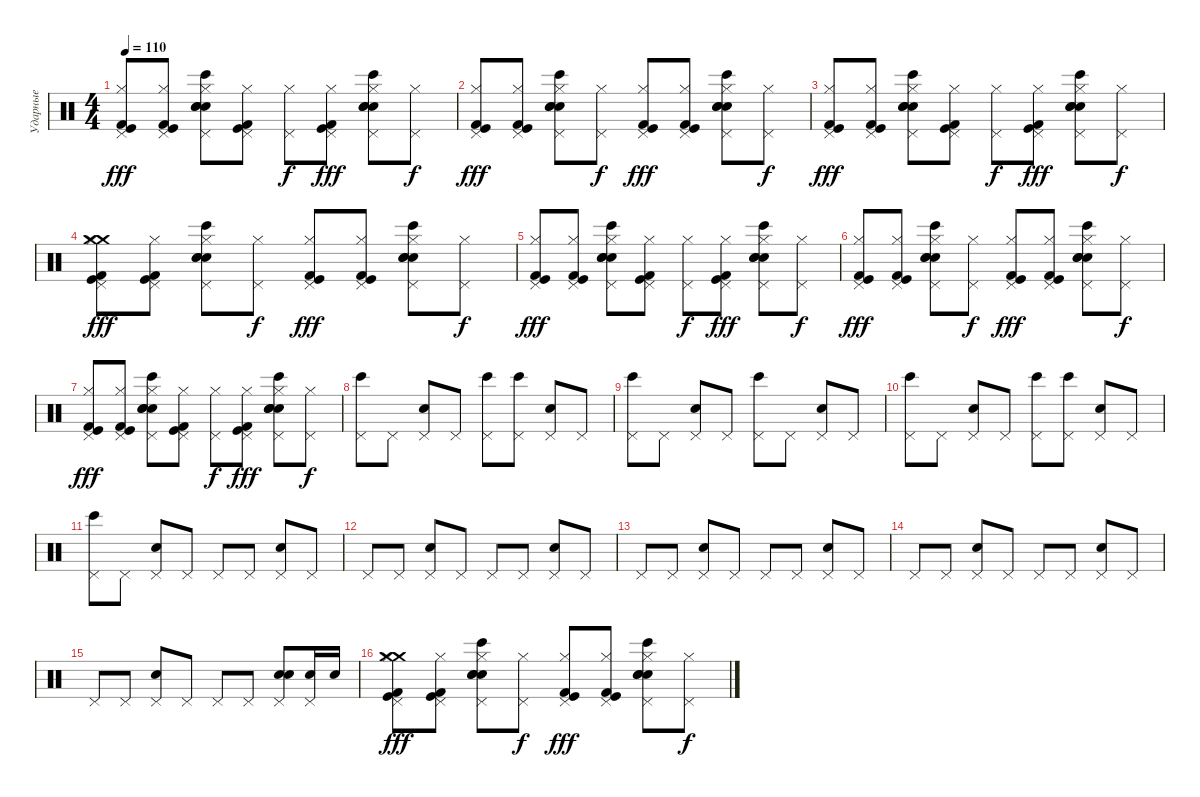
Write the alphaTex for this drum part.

\track ("Ударные" "Ударные") {instrument percussion}
\staff {score}
\articulation defaults
\ts (4 4)
\tempo 110
\clef neutral
\ks c
("Kick (hit) 2" "Kick (hit)" "Hi-Hat (closed)" "Pedal Hi-Hat (hit)").8{dy fff} ("Kick (hit) 2" "Kick (hit)" "Hi-Hat (closed)" "Pedal Hi-Hat (hit)").8 ("Bongo High (hit)" "Snare (hit) 2" "Snare (hit) 2" "Snare (hit) 2" "Hi-Hat (closed)" "Pedal Hi-Hat (hit)").8 ("Kick (hit) 2" "Kick (hit)" "Hi-Hat (closed)" "Pedal Hi-Hat (hit)").8 ("Hi-Hat (closed)" "Pedal Hi-Hat (hit)").8{dy f} ("Kick (hit) 2" "Kick (hit)" "Hi-Hat (closed)" "Pedal Hi-Hat (hit)").8{dy fff} ("Bongo High (hit)" "Snare (hit) 2" "Snare (hit) 2" "Snare (hit) 2" "Hi-Hat (closed)" "Pedal Hi-Hat (hit)").8 ("Hi-Hat (closed)" "Pedal Hi-Hat (hit)").8{dy f} |
("Kick (hit) 2" "Kick (hit)" "Hi-Hat (closed)" "Pedal Hi-Hat (hit)").8{dy fff} ("Kick (hit) 2" "Kick (hit)" "Hi-Hat (closed)" "Pedal Hi-Hat (hit)").8 ("Bongo High (hit)" "Snare (hit) 2" "Snare (hit) 2" "Snare (hit) 2" "Hi-Hat (closed)" "Pedal Hi-Hat (hit)").8 ("Hi-Hat (closed)" "Pedal Hi-Hat (hit)").8{dy f} ("Kick (hit) 2" "Kick (hit)" "Hi-Hat (closed)" "Pedal Hi-Hat (hit)").8{dy fff} ("Kick (hit) 2" "Kick (hit)" "Hi-Hat (closed)" "Pedal Hi-Hat (hit)").8 ("Bongo High (hit)" "Snare (hit) 2" "Snare (hit) 2" "Snare (hit) 2" "Hi-Hat (closed)" "Pedal Hi-Hat (hit)").8 ("Hi-Hat (closed)" "Pedal Hi-Hat (hit)").8{dy f} |
("Kick (hit) 2" "Kick (hit)" "Hi-Hat (closed)" "Pedal Hi-Hat (hit)").8{dy fff} ("Kick (hit) 2" "Kick (hit)" "Hi-Hat (closed)" "Pedal Hi-Hat (hit)").8 ("Bongo High (hit)" "Snare (hit) 2" "Snare (hit) 2" "Snare (hit) 2" "Hi-Hat (closed)" "Pedal Hi-Hat (hit)").8 ("Kick (hit) 2" "Kick (hit)" "Hi-Hat (closed)" "Pedal Hi-Hat (hit)").8 ("Hi-Hat (closed)" "Pedal Hi-Hat (hit)").8{dy f} ("Kick (hit) 2" "Kick (hit)" "Hi-Hat (closed)" "Pedal Hi-Hat (hit)").8{dy fff} ("Bongo High (hit)" "Snare (hit) 2" "Snare (hit) 2" "Snare (hit) 2" "Hi-Hat (closed)" "Pedal Hi-Hat (hit)").8 ("Hi-Hat (closed)" "Pedal Hi-Hat (hit)").8{dy f} |
("Crash medium (hit)" "Crash medium (hit)" "Kick (hit) 2" "Kick (hit)" "Hi-Hat (closed)" "Pedal Hi-Hat (hit)").8{dy fff} ("Kick (hit) 2" "Kick (hit)" "Hi-Hat (closed)" "Pedal Hi-Hat (hit)").8 ("Bongo High (hit)" "Snare (hit) 2" "Snare (hit) 2" "Snare (hit) 2" "Hi-Hat (closed)" "Pedal Hi-Hat (hit)").8 ("Hi-Hat (closed)" "Pedal Hi-Hat (hit)").8{dy f} ("Kick (hit) 2" "Kick (hit)" "Hi-Hat (closed)" "Pedal Hi-Hat (hit)").8{dy fff} ("Kick (hit) 2" "Kick (hit)" "Hi-Hat (closed)" "Pedal Hi-Hat (hit)").8 ("Bongo High (hit)" "Snare (hit) 2" "Snare (hit) 2" "Snare (hit) 2" "Hi-Hat (closed)" "Pedal Hi-Hat (hit)").8 ("Hi-Hat (closed)" "Pedal Hi-Hat (hit)").8{dy f} |
("Kick (hit) 2" "Kick (hit)" "Hi-Hat (closed)" "Pedal Hi-Hat (hit)").8{dy fff} ("Kick (hit) 2" "Kick (hit)" "Hi-Hat (closed)" "Pedal Hi-Hat (hit)").8 ("Bongo High (hit)" "Snare (hit) 2" "Snare (hit) 2" "Snare (hit) 2" "Hi-Hat (closed)" "Pedal Hi-Hat (hit)").8 ("Kick (hit) 2" "Kick (hit)" "Hi-Hat (closed)" "Pedal Hi-Hat (hit)").8 ("Hi-Hat (closed)" "Pedal Hi-Hat (hit)").8{dy f} ("Kick (hit) 2" "Kick (hit)" "Hi-Hat (closed)" "Pedal Hi-Hat (hit)").8{dy fff} ("Bongo High (hit)" "Snare (hit) 2" "Snare (hit) 2" "Snare (hit) 2" "Hi-Hat (closed)" "Pedal Hi-Hat (hit)").8 ("Hi-Hat (closed)" "Pedal Hi-Hat (hit)").8{dy f} |
("Kick (hit) 2" "Kick (hit)" "Hi-Hat (closed)" "Pedal Hi-Hat (hit)").8{dy fff} ("Kick (hit) 2" "Kick (hit)" "Hi-Hat (closed)" "Pedal Hi-Hat (hit)").8 ("Bongo High (hit)" "Snare (hit) 2" "Snare (hit) 2" "Snare (hit) 2" "Hi-Hat (closed)" "Pedal Hi-Hat (hit)").8 ("Hi-Hat (closed)" "Pedal Hi-Hat (hit)").8{dy f} ("Kick (hit) 2" "Kick (hit)" "Hi-Hat (closed)" "Pedal Hi-Hat (hit)").8{dy fff} ("Kick (hit) 2" "Kick (hit)" "Hi-Hat (closed)" "Pedal Hi-Hat (hit)").8 ("Bongo High (hit)" "Snare (hit) 2" "Snare (hit) 2" "Snare (hit) 2" "Hi-Hat (closed)" "Pedal Hi-Hat (hit)").8 ("Hi-Hat (closed)" "Pedal Hi-Hat (hit)").8{dy f} |
("Kick (hit) 2" "Kick (hit)" "Hi-Hat (closed)" "Pedal Hi-Hat (hit)").8{dy fff} ("Kick (hit) 2" "Kick (hit)" "Hi-Hat (closed)" "Pedal Hi-Hat (hit)").8 ("Bongo High (hit)" "Snare (hit) 2" "Snare (hit) 2" "Snare (hit) 2" "Hi-Hat (closed)" "Pedal Hi-Hat (hit)").8 ("Kick (hit) 2" "Kick (hit)" "Hi-Hat (closed)" "Pedal Hi-Hat (hit)").8 ("Hi-Hat (closed)" "Pedal Hi-Hat (hit)").8{dy f} ("Kick (hit) 2" "Kick (hit)" "Hi-Hat (closed)" "Pedal Hi-Hat (hit)").8{dy fff} ("Bongo High (hit)" "Snare (hit) 2" "Snare (hit) 2" "Snare (hit) 2" "Hi-Hat (closed)" "Pedal Hi-Hat (hit)").8 ("Hi-Hat (closed)" "Pedal Hi-Hat (hit)").8{dy f} |
("Bongo High (hit)" "Pedal Hi-Hat (hit)").8 "Pedal Hi-Hat (hit)".8 ("Hand Clap (hit)" "Pedal Hi-Hat (hit)").8 "Pedal Hi-Hat (hit)".8 ("Bongo High (hit)" "Pedal Hi-Hat (hit)").8 ("Bongo High (hit)" "Pedal Hi-Hat (hit)").8 ("Hand Clap (hit)" "Pedal Hi-Hat (hit)").8 "Pedal Hi-Hat (hit)".8 |
("Bongo High (hit)" "Pedal Hi-Hat (hit)").8 "Pedal Hi-Hat (hit)".8 ("Hand Clap (hit)" "Pedal Hi-Hat (hit)").8 "Pedal Hi-Hat (hit)".8 ("Bongo High (hit)" "Pedal Hi-Hat (hit)").8 "Pedal Hi-Hat (hit)".8 ("Hand Clap (hit)" "Pedal Hi-Hat (hit)").8 "Pedal Hi-Hat (hit)".8 |
("Bongo High (hit)" "Pedal Hi-Hat (hit)").8 "Pedal Hi-Hat (hit)".8 ("Hand Clap (hit)" "Pedal Hi-Hat (hit)").8 "Pedal Hi-Hat (hit)".8 ("Bongo High (hit)" "Pedal Hi-Hat (hit)").8 ("Bongo High (hit)" "Pedal Hi-Hat (hit)").8 ("Hand Clap (hit)" "Pedal Hi-Hat (hit)").8 "Pedal Hi-Hat (hit)".8 |
("Bongo High (hit)" "Pedal Hi-Hat (hit)").8 "Pedal Hi-Hat (hit)".8 ("Hand Clap (hit)" "Pedal Hi-Hat (hit)").8 "Pedal Hi-Hat (hit)".8 "Pedal Hi-Hat (hit)".8 "Pedal Hi-Hat (hit)".8 ("Hand Clap (hit)" "Pedal Hi-Hat (hit)").8 "Pedal Hi-Hat (hit)".8 |
"Pedal Hi-Hat (hit)".8 "Pedal Hi-Hat (hit)".8 ("Hand Clap (hit)" "Pedal Hi-Hat (hit)").8 "Pedal Hi-Hat (hit)".8 "Pedal Hi-Hat (hit)".8 "Pedal Hi-Hat (hit)".8 ("Hand Clap (hit)" "Pedal Hi-Hat (hit)").8 "Pedal Hi-Hat (hit)".8 |
"Pedal Hi-Hat (hit)".8 "Pedal Hi-Hat (hit)".8 ("Hand Clap (hit)" "Pedal Hi-Hat (hit)").8 "Pedal Hi-Hat (hit)".8 "Pedal Hi-Hat (hit)".8 "Pedal Hi-Hat (hit)".8 ("Hand Clap (hit)" "Pedal Hi-Hat (hit)").8 "Pedal Hi-Hat (hit)".8 |
"Pedal Hi-Hat (hit)".8 "Pedal Hi-Hat (hit)".8 ("Hand Clap (hit)" "Pedal Hi-Hat (hit)").8 "Pedal Hi-Hat (hit)".8 "Pedal Hi-Hat (hit)".8 "Pedal Hi-Hat (hit)".8 ("Hand Clap (hit)" "Pedal Hi-Hat (hit)").8 "Pedal Hi-Hat (hit)".8 |
"Pedal Hi-Hat (hit)".8 "Pedal Hi-Hat (hit)".8 ("Hand Clap (hit)" "Pedal Hi-Hat (hit)").8 "Pedal Hi-Hat (hit)".8 "Pedal Hi-Hat (hit)".8 "Pedal Hi-Hat (hit)".8 ("Hand Clap (hit)" "Snare (hit) 2" "Pedal Hi-Hat (hit)").8 ("Snare (hit) 2" "Pedal Hi-Hat (hit)").16 "Snare (hit) 2".16 |
("Crash medium (hit)" "Crash medium (hit)" "Kick (hit) 2" "Kick (hit)" "Hi-Hat (closed)" "Pedal Hi-Hat (hit)").8{dy fff} ("Kick (hit) 2" "Kick (hit)" "Hi-Hat (closed)" "Pedal Hi-Hat (hit)").8 ("Bongo High (hit)" "Snare (hit) 2" "Snare (hit) 2" "Snare (hit) 2" "Hi-Hat (closed)" "Pedal Hi-Hat (hit)").8 ("Hi-Hat (closed)" "Pedal Hi-Hat (hit)").8{dy f} ("Kick (hit) 2" "Kick (hit)" "Hi-Hat (closed)" "Pedal Hi-Hat (hit)").8{dy fff} ("Kick (hit) 2" "Kick (hit)" "Hi-Hat (closed)" "Pedal Hi-Hat (hit)").8 ("Bongo High (hit)" "Snare (hit) 2" "Snare (hit) 2" "Snare (hit) 2" "Hi-Hat (closed)" "Pedal Hi-Hat (hit)").8 ("Hi-Hat (closed)" "Pedal Hi-Hat (hit)").8{dy f}
